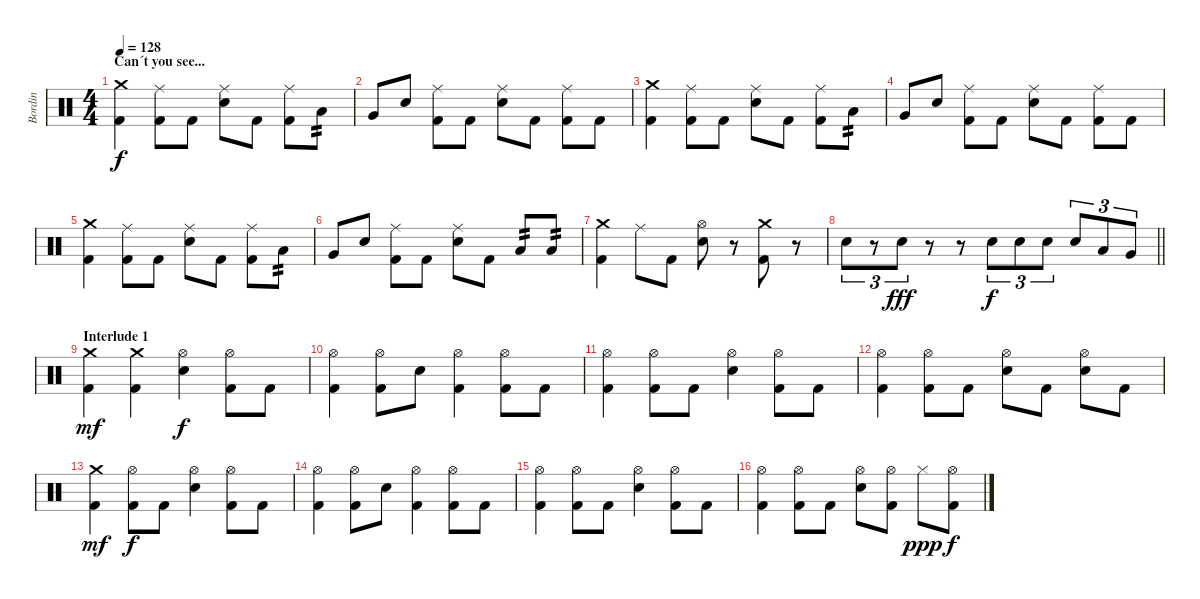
\track ("Bordin" "Bordin") {instrument percussion}
\staff {score}
\articulation defaults
\ts (4 4)
\section ("" "Can´t you see...")
\tempo 128
\clef neutral
\ks c
("Crash medium (hit)" "Kick (hit) 2").4{dy f} ("Ride (middle)" "Kick (hit) 2").8 "Kick (hit) 2".8 ("Ride (middle)" "Electric Snare (hit)").8 "Kick (hit) 2".8 ("Ride (middle)" "Kick (hit) 2").8 "Low Tom (hit)".8{tp 2} |
"Very Low Tom (hit)".8 "Electric Snare (hit)".8 ("Ride (middle)" "Kick (hit) 2").8 "Kick (hit) 2".8 ("Ride (middle)" "Electric Snare (hit)").8 "Kick (hit) 2".8 ("Ride (middle)" "Kick (hit) 2").8 "Kick (hit) 2".8 |
("Crash medium (hit)" "Kick (hit) 2").4 ("Ride (middle)" "Kick (hit) 2").8 "Kick (hit) 2".8 ("Ride (middle)" "Electric Snare (hit)").8 "Kick (hit) 2".8 ("Ride (middle)" "Kick (hit) 2").8 "Low Tom (hit)".8{tp 2} |
"Very Low Tom (hit)".8 "Electric Snare (hit)".8 ("Ride (middle)" "Kick (hit) 2").8 "Kick (hit) 2".8 ("Ride (middle)" "Electric Snare (hit)").8 "Kick (hit) 2".8 ("Ride (middle)" "Kick (hit) 2").8 "Kick (hit) 2".8 |
("Crash medium (hit)" "Kick (hit) 2").4 ("Ride (middle)" "Kick (hit) 2").8 "Kick (hit) 2".8 ("Ride (middle)" "Electric Snare (hit)").8 "Kick (hit) 2".8 ("Ride (middle)" "Kick (hit) 2").8 "Low Tom (hit)".8{tp 2} |
"Very Low Tom (hit)".8 "Electric Snare (hit)".8 ("Ride (middle)" "Kick (hit) 2").8 "Kick (hit) 2".8 ("Ride (middle)" "Electric Snare (hit)").8 "Kick (hit) 2".8 "Low Tom (hit)".8{tp 2} "Low Tom (hit)".8{tp 2} |
("Crash medium (hit)" "Kick (hit) 2").4 "Ride (middle)".8 "Kick (hit) 2".8 ("Hi-Hat (open)" "Electric Snare (hit)").8 r.8 ("Crash medium (hit)" "Kick (hit) 2").8 r.8 |
\barLineRight lightlight "Electric Snare (hit)".8{tu (3 2)}
r.8{tu (3 2)} "Electric Snare (hit)".8{tu (3 2) dy fff} r.8 r.8 "Electric Snare (hit)".8{tu (3 2) dy f} "Electric Snare (hit)".8{tu (3 2)} "Electric Snare (hit)".8{tu (3 2)} "Electric Snare (hit)".8{tu (3 2)} "Low Tom (hit)".8{tu (3 2)} "Very Low Tom (hit)".8{tu (3 2)} |
\section ("" "Interlude 1")
("Crash medium (hit)" "Kick (hit) 2").4{dy mf} ("Crash medium (hit)" "Kick (hit) 2").4 ("Hi-Hat (open)" "Electric Snare (hit)").4{dy f} ("Hi-Hat (open)" "Kick (hit) 2").8 "Kick (hit) 2".8 |
("Hi-Hat (open)" "Kick (hit) 2").4 ("Hi-Hat (open)" "Kick (hit) 2").8 "Electric Snare (hit)".8 ("Hi-Hat (open)" "Kick (hit) 2").4 ("Hi-Hat (open)" "Kick (hit) 2").8 "Kick (hit) 2".8 |
("Hi-Hat (open)" "Kick (hit) 2").4 ("Hi-Hat (open)" "Kick (hit) 2").8 "Kick (hit) 2".8 ("Hi-Hat (open)" "Electric Snare (hit)").4 ("Hi-Hat (open)" "Kick (hit) 2").8 "Kick (hit) 2".8 |
("Hi-Hat (open)" "Kick (hit) 2").4 ("Hi-Hat (open)" "Kick (hit) 2").8 "Kick (hit) 2".8 ("Hi-Hat (open)" "Electric Snare (hit)").8 "Kick (hit) 2".8 ("Hi-Hat (open)" "Electric Snare (hit)").8 "Kick (hit) 2".8 |
("Crash medium (hit)" "Kick (hit) 2").4{dy mf} ("Hi-Hat (open)" "Kick (hit) 2").8{dy f} "Kick (hit) 2".8 ("Hi-Hat (open)" "Electric Snare (hit)").4 ("Hi-Hat (open)" "Kick (hit) 2").8 "Kick (hit) 2".8 |
("Hi-Hat (open)" "Kick (hit) 2").4 ("Hi-Hat (open)" "Kick (hit) 2").8 "Electric Snare (hit)".8 ("Hi-Hat (open)" "Kick (hit) 2").4 ("Hi-Hat (open)" "Kick (hit) 2").8 "Kick (hit) 2".8 |
("Hi-Hat (open)" "Kick (hit) 2").4 ("Hi-Hat (open)" "Kick (hit) 2").8 "Kick (hit) 2".8 ("Hi-Hat (open)" "Electric Snare (hit)").4 ("Hi-Hat (open)" "Kick (hit) 2").8 "Kick (hit) 2".8 |
("Hi-Hat (open)" "Kick (hit) 2").4 ("Hi-Hat (open)" "Kick (hit) 2").8 "Kick (hit) 2".8 ("Hi-Hat (open)" "Electric Snare (hit)").8 ("Hi-Hat (open)" "Kick (hit) 2").8 "Hi-Hat (closed)".8{dy ppp} ("Hi-Hat (open)" "Kick (hit) 2").8{dy f}
